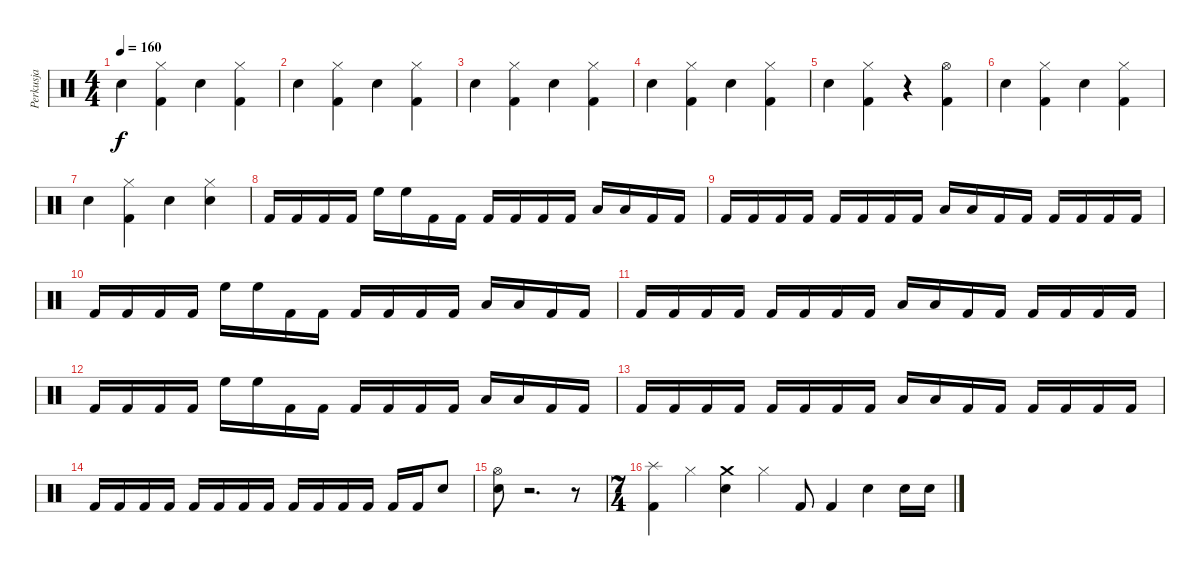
\track ("Perkusja" "Perkusja") {instrument percussion}
\staff {score}
\articulation defaults
\ts (4 4)
\tempo 160
\clef neutral
\ks c "Snare (hit) 2".4{dy f}
("Kick (hit) 2" "Hi-Hat (closed)").4 "Snare (hit) 2".4 ("Kick (hit) 2" "Hi-Hat (closed)").4 |
"Snare (hit) 2".4 ("Kick (hit) 2" "Hi-Hat (closed)").4 "Snare (hit) 2".4 ("Kick (hit) 2" "Hi-Hat (closed)").4 |
"Snare (hit) 2".4 ("Kick (hit) 2" "Hi-Hat (closed)").4 "Snare (hit) 2".4 ("Kick (hit) 2" "Hi-Hat (closed)").4 |
"Snare (hit) 2".4 ("Kick (hit) 2" "Hi-Hat (closed)").4 "Snare (hit) 2".4 ("Kick (hit) 2" "Hi-Hat (closed)").4 |
"Snare (hit) 2".4 ("Kick (hit) 2" "Hi-Hat (closed)").4 r.4 ("Kick (hit) 2" "Hi-Hat (open)").4 |
"Snare (hit) 2".4 ("Kick (hit) 2" "Hi-Hat (closed)").4 "Snare (hit) 2".4 ("Kick (hit) 2" "Hi-Hat (closed)").4 |
"Snare (hit) 2".4 ("Kick (hit) 2" "Hi-Hat (closed)").4 "Snare (hit) 2".4 ("Snare (hit) 2" "Hi-Hat (closed)").4 |
"Kick (hit) 2".16 "Kick (hit) 2".16 "Kick (hit) 2".16 "Kick (hit) 2".16 "High Floor Tom (hit)".16 "High Floor Tom (hit)".16 "Kick (hit) 2".16 "Kick (hit) 2".16 "Kick (hit) 2".16 "Kick (hit) 2".16 "Kick (hit) 2".16 "Kick (hit) 2".16 "Low Tom (hit)".16 "Low Tom (hit)".16 "Kick (hit) 2".16 "Kick (hit) 2".16 |
"Kick (hit) 2".16 "Kick (hit) 2".16 "Kick (hit) 2".16 "Kick (hit) 2".16 "Kick (hit) 2".16 "Kick (hit) 2".16 "Kick (hit) 2".16 "Kick (hit) 2".16 "Low Tom (hit)".16 "Low Tom (hit)".16 "Kick (hit) 2".16 "Kick (hit) 2".16 "Kick (hit) 2".16 "Kick (hit) 2".16 "Kick (hit) 2".16 "Kick (hit) 2".16 |
"Kick (hit) 2".16 "Kick (hit) 2".16 "Kick (hit) 2".16 "Kick (hit) 2".16 "High Floor Tom (hit)".16 "High Floor Tom (hit)".16 "Kick (hit) 2".16 "Kick (hit) 2".16 "Kick (hit) 2".16 "Kick (hit) 2".16 "Kick (hit) 2".16 "Kick (hit) 2".16 "Low Tom (hit)".16 "Low Tom (hit)".16 "Kick (hit) 2".16 "Kick (hit) 2".16 |
"Kick (hit) 2".16 "Kick (hit) 2".16 "Kick (hit) 2".16 "Kick (hit) 2".16 "Kick (hit) 2".16 "Kick (hit) 2".16 "Kick (hit) 2".16 "Kick (hit) 2".16 "Low Tom (hit)".16 "Low Tom (hit)".16 "Kick (hit) 2".16 "Kick (hit) 2".16 "Kick (hit) 2".16 "Kick (hit) 2".16 "Kick (hit) 2".16 "Kick (hit) 2".16 |
"Kick (hit) 2".16 "Kick (hit) 2".16 "Kick (hit) 2".16 "Kick (hit) 2".16 "High Floor Tom (hit)".16 "High Floor Tom (hit)".16 "Kick (hit) 2".16 "Kick (hit) 2".16 "Kick (hit) 2".16 "Kick (hit) 2".16 "Kick (hit) 2".16 "Kick (hit) 2".16 "Low Tom (hit)".16 "Low Tom (hit)".16 "Kick (hit) 2".16 "Kick (hit) 2".16 |
"Kick (hit) 2".16 "Kick (hit) 2".16 "Kick (hit) 2".16 "Kick (hit) 2".16 "Kick (hit) 2".16 "Kick (hit) 2".16 "Kick (hit) 2".16 "Kick (hit) 2".16 "Low Tom (hit)".16 "Low Tom (hit)".16 "Kick (hit) 2".16 "Kick (hit) 2".16 "Kick (hit) 2".16 "Kick (hit) 2".16 "Kick (hit) 2".16 "Kick (hit) 2".16 |
"Kick (hit) 2".16 "Kick (hit) 2".16 "Kick (hit) 2".16 "Kick (hit) 2".16 "Kick (hit) 2".16 "Kick (hit) 2".16 "Kick (hit) 2".16 "Kick (hit) 2".16 "Kick (hit) 2".16 "Kick (hit) 2".16 "Kick (hit) 2".16 "Kick (hit) 2".16 "Kick (hit) 2".16 "Kick (hit) 2".16 "Snare (hit) 2".8 |
("Snare (hit) 2" "Hi-Hat (open)").8 r.2{d} r.8 |
\ts (7 4)
("Kick (hit) 2" "Splash (hit)").4 "Hi-Hat (closed)".4 ("Snare (hit) 2" "Crash medium (hit)").4 "Hi-Hat (closed)".4 "Kick (hit) 2".8 "Kick (hit) 2".4 "Snare (hit) 2".4 "Snare (hit) 2".16 "Snare (hit) 2".16
